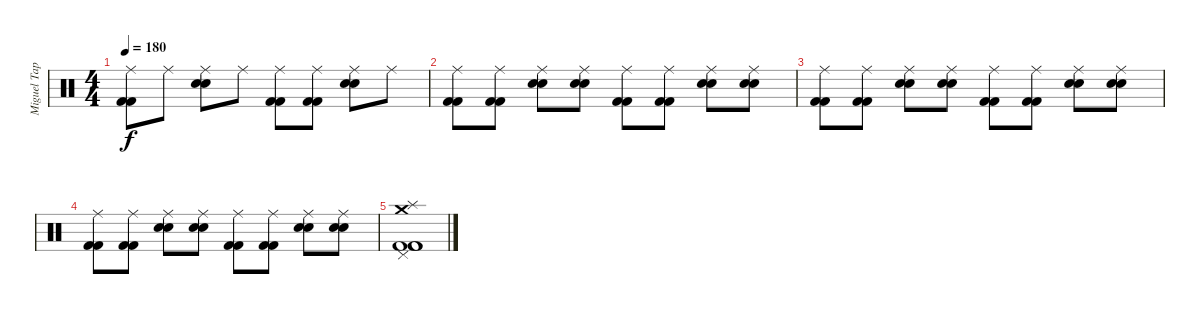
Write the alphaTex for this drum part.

\track ("Miguel Tapia" "Miguel Tap") {instrument percussion}
\staff {score}
\articulation defaults
\ts (4 4)
\tempo 180
\clef neutral
\ks c
("Ride (middle)" "Kick (hit) 2" "Kick (hit) 2").8{dy f} "Ride (middle)".8 ("Ride (middle)" "Electric Snare (hit)" "Electric Snare (hit)").8 "Ride (middle)".8 ("Ride (middle)" "Kick (hit) 2" "Kick (hit) 2").8 ("Ride (middle)" "Kick (hit) 2" "Kick (hit) 2").8 ("Ride (middle)" "Electric Snare (hit)" "Electric Snare (hit)").8 "Ride (middle)".8 |
("Ride (middle)" "Kick (hit) 2" "Kick (hit) 2").8 ("Ride (middle)" "Kick (hit) 2" "Kick (hit) 2").8 ("Ride (middle)" "Electric Snare (hit)" "Electric Snare (hit)").8 ("Ride (middle)" "Electric Snare (hit)" "Electric Snare (hit)").8 ("Ride (middle)" "Kick (hit) 2" "Kick (hit) 2").8 ("Ride (middle)" "Kick (hit) 2" "Kick (hit) 2").8 ("Ride (middle)" "Electric Snare (hit)" "Electric Snare (hit)").8 ("Ride (middle)" "Electric Snare (hit)" "Electric Snare (hit)").8 |
("Ride (middle)" "Kick (hit) 2" "Kick (hit) 2").8 ("Ride (middle)" "Kick (hit) 2" "Kick (hit) 2").8 ("Ride (middle)" "Electric Snare (hit)" "Electric Snare (hit)").8 ("Ride (middle)" "Electric Snare (hit)" "Electric Snare (hit)").8 ("Ride (middle)" "Kick (hit) 2" "Kick (hit) 2").8 ("Ride (middle)" "Kick (hit) 2" "Kick (hit) 2").8 ("Ride (middle)" "Electric Snare (hit)" "Electric Snare (hit)").8 ("Ride (middle)" "Electric Snare (hit)" "Electric Snare (hit)").8 |
("Ride (middle)" "Kick (hit) 2" "Kick (hit) 2").8 ("Ride (middle)" "Kick (hit) 2" "Kick (hit) 2").8 ("Ride (middle)" "Electric Snare (hit)" "Electric Snare (hit)").8 ("Ride (middle)" "Electric Snare (hit)" "Electric Snare (hit)").8 ("Ride (middle)" "Kick (hit) 2" "Kick (hit) 2").8 ("Ride (middle)" "Kick (hit) 2" "Kick (hit) 2").8 ("Ride (middle)" "Electric Snare (hit)" "Electric Snare (hit)").8 ("Ride (middle)" "Electric Snare (hit)" "Electric Snare (hit)").8 |
("Crash medium (hit)" "Kick (hit) 2" "Kick (hit) 2" "Kick (hit) 2" "Splash (hit)" "Pedal Hi-Hat (hit)").1
